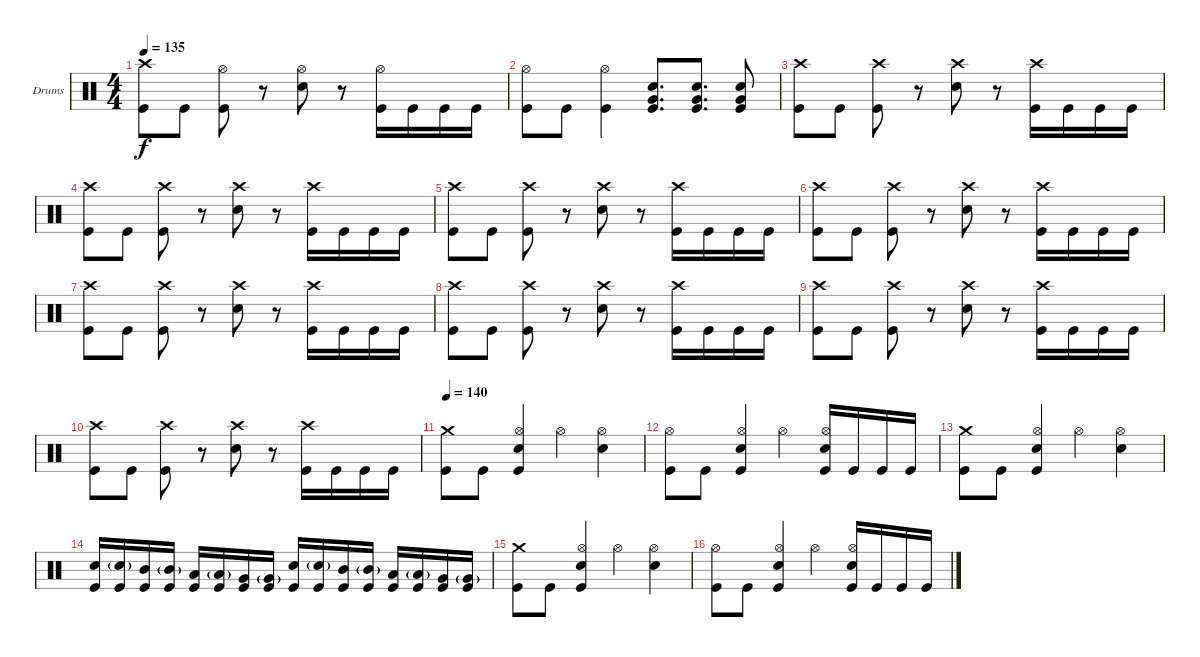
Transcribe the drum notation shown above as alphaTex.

\bracketExtendMode groupsimilarinstruments
\firstSystemTrackNameOrientation horizontal
\otherSystemsTrackNameOrientation horizontal
\track ("Drumkit" "Drums") {instrument percussion}
\staff {score}
\articulation defaults
\ts (4 4)
\tempo 135
\clef neutral
\ks c
("Crash high (hit)" "Kick (hit)").8{dy f} "Kick (hit)".8 ("Hi-Hat (open)" "Kick (hit)").8 r.8 ("Hi-Hat (open)" "Snare (hit) 2").8 r.8 ("Hi-Hat (open)" "Kick (hit)").16 "Kick (hit)".16 "Kick (hit)".16 "Kick (hit)".16 |
("Hi-Hat (open)" "Kick (hit)").8 "Kick (hit)".8 ("Hi-Hat (open)" "Kick (hit)").4 ("Snare (hit) 2" "Very Low Tom (hit)" "Kick (hit)").8{d} ("Snare (hit) 2" "Very Low Tom (hit)" "Kick (hit)").8{d} ("Snare (hit) 2" "Very Low Tom (hit)" "Kick (hit)").8 |
("Crash high (hit)" "Kick (hit)").8 "Kick (hit)".8 ("Crash high (hit)" "Kick (hit)").8 r.8 ("Crash high (hit)" "Snare (hit) 2").8 r.8 ("Crash high (hit)" "Kick (hit)").16 "Kick (hit)".16 "Kick (hit)".16 "Kick (hit)".16 |
("Crash high (hit)" "Kick (hit)").8 "Kick (hit)".8 ("Crash high (hit)" "Kick (hit)").8 r.8 ("Crash high (hit)" "Snare (hit) 2").8 r.8 ("Crash high (hit)" "Kick (hit)").16 "Kick (hit)".16 "Kick (hit)".16 "Kick (hit)".16 |
("Crash high (hit)" "Kick (hit)").8 "Kick (hit)".8 ("Crash high (hit)" "Kick (hit)").8 r.8 ("Crash high (hit)" "Snare (hit) 2").8 r.8 ("Crash high (hit)" "Kick (hit)").16 "Kick (hit)".16 "Kick (hit)".16 "Kick (hit)".16 |
("Crash high (hit)" "Kick (hit)").8 "Kick (hit)".8 ("Crash high (hit)" "Kick (hit)").8 r.8 ("Crash high (hit)" "Snare (hit) 2").8 r.8 ("Crash high (hit)" "Kick (hit)").16 "Kick (hit)".16 "Kick (hit)".16 "Kick (hit)".16 |
("Crash high (hit)" "Kick (hit)").8 "Kick (hit)".8 ("Crash high (hit)" "Kick (hit)").8 r.8 ("Crash high (hit)" "Snare (hit) 2").8 r.8 ("Crash high (hit)" "Kick (hit)").16 "Kick (hit)".16 "Kick (hit)".16 "Kick (hit)".16 |
("Crash high (hit)" "Kick (hit)").8 "Kick (hit)".8 ("Crash high (hit)" "Kick (hit)").8 r.8 ("Crash high (hit)" "Snare (hit) 2").8 r.8 ("Crash high (hit)" "Kick (hit)").16 "Kick (hit)".16 "Kick (hit)".16 "Kick (hit)".16 |
("Crash high (hit)" "Kick (hit)").8 "Kick (hit)".8 ("Crash high (hit)" "Kick (hit)").8 r.8 ("Crash high (hit)" "Snare (hit) 2").8 r.8 ("Crash high (hit)" "Kick (hit)").16 "Kick (hit)".16 "Kick (hit)".16 "Kick (hit)".16 |
("Crash high (hit)" "Kick (hit)").8 "Kick (hit)".8 ("Crash high (hit)" "Kick (hit)").8 r.8 ("Crash high (hit)" "Snare (hit) 2").8 r.8 ("Crash high (hit)" "Kick (hit)").16 "Kick (hit)".16 "Kick (hit)".16 "Kick (hit)".16 |
\tempo 140
("Crash medium (hit)" "Kick (hit)").8 "Kick (hit)".8 ("Hi-Hat (open)" "Snare (hit) 2" "Kick (hit)").4 "Hi-Hat (open)".4 ("Hi-Hat (open)" "Snare (hit) 2").4 |
("Hi-Hat (open)" "Kick (hit)").8 "Kick (hit)".8 ("Hi-Hat (open)" "Snare (hit) 2" "Kick (hit)").4 "Hi-Hat (open)".4 ("Hi-Hat (open)" "Snare (hit) 2" "Kick (hit)").16 "Kick (hit)".16 "Kick (hit)".16 "Kick (hit)".16 |
("Crash medium (hit)" "Kick (hit)").8 "Kick (hit)".8 ("Hi-Hat (open)" "Snare (hit) 2" "Kick (hit)").4 "Hi-Hat (open)".4 ("Hi-Hat (open)" "Snare (hit) 2").4 |
("Snare (hit) 2" "Kick (hit)").16 ("Snare (hit) 2"{g} "Kick (hit)").16 ("Mid Tom (hit)" "Kick (hit)").16 ("Mid Tom (hit)"{g} "Kick (hit)").16 ("Low Tom (hit)" "Kick (hit)").16 ("Low Tom (hit)"{g} "Kick (hit)").16 ("Very Low Tom (hit)" "Kick (hit)").16 ("Very Low Tom (hit)"{g} "Kick (hit)").16 ("Snare (hit) 2" "Kick (hit)").16 ("Snare (hit) 2"{g} "Kick (hit)").16 ("Mid Tom (hit)" "Kick (hit)").16 ("Mid Tom (hit)"{g} "Kick (hit)").16 ("Low Tom (hit)" "Kick (hit)").16 ("Low Tom (hit)"{g} "Kick (hit)").16 ("Very Low Tom (hit)" "Kick (hit)").16 ("Very Low Tom (hit)"{g} "Kick (hit)").16 |
("Crash medium (hit)" "Kick (hit)").8 "Kick (hit)".8 ("Hi-Hat (open)" "Snare (hit) 2" "Kick (hit)").4 "Hi-Hat (open)".4 ("Hi-Hat (open)" "Snare (hit) 2").4 |
("Hi-Hat (open)" "Kick (hit)").8 "Kick (hit)".8 ("Hi-Hat (open)" "Snare (hit) 2" "Kick (hit)").4 "Hi-Hat (open)".4 ("Hi-Hat (open)" "Snare (hit) 2" "Kick (hit)").16 "Kick (hit)".16 "Kick (hit)".16 "Kick (hit)".16
